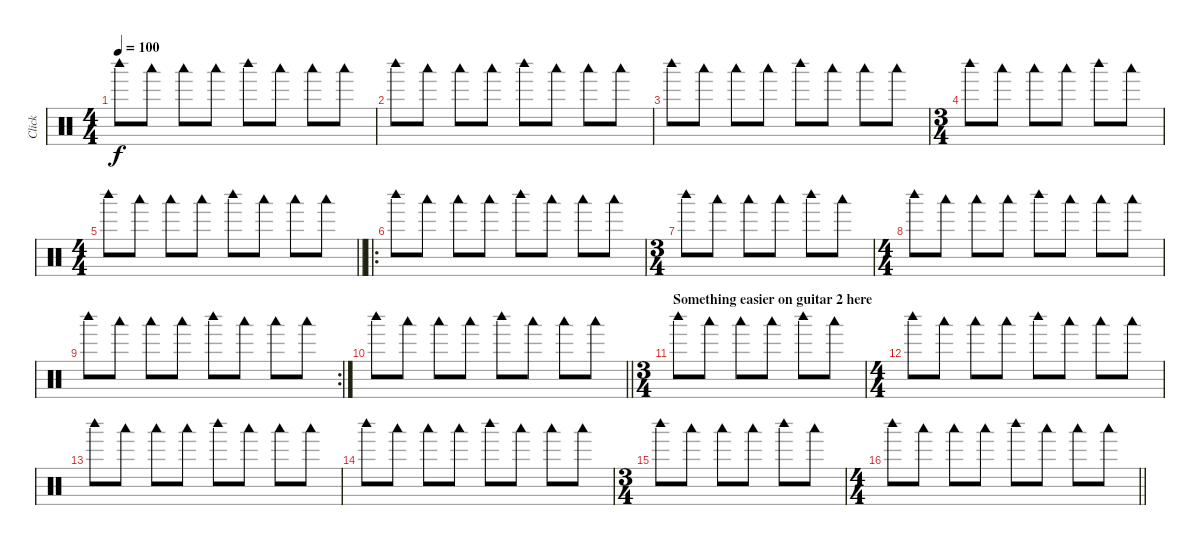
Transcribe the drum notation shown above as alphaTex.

\track ("Click" "Click") {mute instrument percussion}
\staff {score}
\articulation defaults
\ts (4 4)
\tempo 100
\clef neutral
\ks c "Woodblock high (hit)".8{dy f} "Woodblock low (hit)".8 "Woodblock low (hit)".8 "Woodblock low (hit)".8 "Woodblock high (hit)".8 "Woodblock low (hit)".8 "Woodblock low (hit)".8 "Woodblock low (hit)".8
|
"Woodblock high (hit)".8 "Woodblock low (hit)".8 "Woodblock low (hit)".8 "Woodblock low (hit)".8 "Woodblock high (hit)".8 "Woodblock low (hit)".8 "Woodblock low (hit)".8 "Woodblock low (hit)".8 |
"Woodblock high (hit)".8 "Woodblock low (hit)".8 "Woodblock low (hit)".8 "Woodblock low (hit)".8 "Woodblock high (hit)".8 "Woodblock low (hit)".8 "Woodblock low (hit)".8 "Woodblock low (hit)".8 |
\ts (3 4)
"Woodblock high (hit)".8 "Woodblock low (hit)".8 "Woodblock low (hit)".8 "Woodblock low (hit)".8 "Woodblock high (hit)".8 "Woodblock low (hit)".8 |
\ts (4 4)
\barLineRight lightlight "Woodblock high (hit)".8 "Woodblock low (hit)".8 "Woodblock low (hit)".8 "Woodblock low (hit)".8 "Woodblock high (hit)".8 "Woodblock low (hit)".8 "Woodblock low (hit)".8 "Woodblock low (hit)".8
|
\ro "Woodblock high (hit)".8 "Woodblock low (hit)".8 "Woodblock low (hit)".8 "Woodblock low (hit)".8 "Woodblock high (hit)".8 "Woodblock low (hit)".8 "Woodblock low (hit)".8 "Woodblock low (hit)".8
|
\ts (3 4)
"Woodblock high (hit)".8 "Woodblock low (hit)".8 "Woodblock low (hit)".8 "Woodblock low (hit)".8 "Woodblock high (hit)".8 "Woodblock low (hit)".8 |
\ts (4 4)
"Woodblock high (hit)".8 "Woodblock low (hit)".8 "Woodblock low (hit)".8 "Woodblock low (hit)".8 "Woodblock high (hit)".8 "Woodblock low (hit)".8 "Woodblock low (hit)".8 "Woodblock low (hit)".8 |
\rc 2 "Woodblock high (hit)".8 "Woodblock low (hit)".8 "Woodblock low (hit)".8 "Woodblock low (hit)".8 "Woodblock high (hit)".8 "Woodblock low (hit)".8 "Woodblock low (hit)".8 "Woodblock low (hit)".8
|
\barLineRight lightlight "Woodblock high (hit)".8 "Woodblock low (hit)".8 "Woodblock low (hit)".8 "Woodblock low (hit)".8 "Woodblock high (hit)".8 "Woodblock low (hit)".8 "Woodblock low (hit)".8 "Woodblock low (hit)".8
|
\ts (3 4)
\section ("" "Something easier on guitar 2 here")
"Woodblock high (hit)".8 "Woodblock low (hit)".8 "Woodblock low (hit)".8 "Woodblock low (hit)".8 "Woodblock high (hit)".8 "Woodblock low (hit)".8 |
\ts (4 4)
"Woodblock high (hit)".8 "Woodblock low (hit)".8 "Woodblock low (hit)".8 "Woodblock low (hit)".8 "Woodblock high (hit)".8 "Woodblock low (hit)".8 "Woodblock low (hit)".8 "Woodblock low (hit)".8 |
"Woodblock high (hit)".8 "Woodblock low (hit)".8 "Woodblock low (hit)".8 "Woodblock low (hit)".8 "Woodblock high (hit)".8 "Woodblock low (hit)".8 "Woodblock low (hit)".8 "Woodblock low (hit)".8 |
"Woodblock high (hit)".8 "Woodblock low (hit)".8 "Woodblock low (hit)".8 "Woodblock low (hit)".8 "Woodblock high (hit)".8 "Woodblock low (hit)".8 "Woodblock low (hit)".8 "Woodblock low (hit)".8 |
\ts (3 4)
"Woodblock high (hit)".8 "Woodblock low (hit)".8 "Woodblock low (hit)".8 "Woodblock low (hit)".8 "Woodblock high (hit)".8 "Woodblock low (hit)".8 |
\ts (4 4)
\barLineRight lightlight "Woodblock high (hit)".8 "Woodblock low (hit)".8 "Woodblock low (hit)".8 "Woodblock low (hit)".8 "Woodblock high (hit)".8 "Woodblock low (hit)".8 "Woodblock low (hit)".8 "Woodblock low (hit)".8
